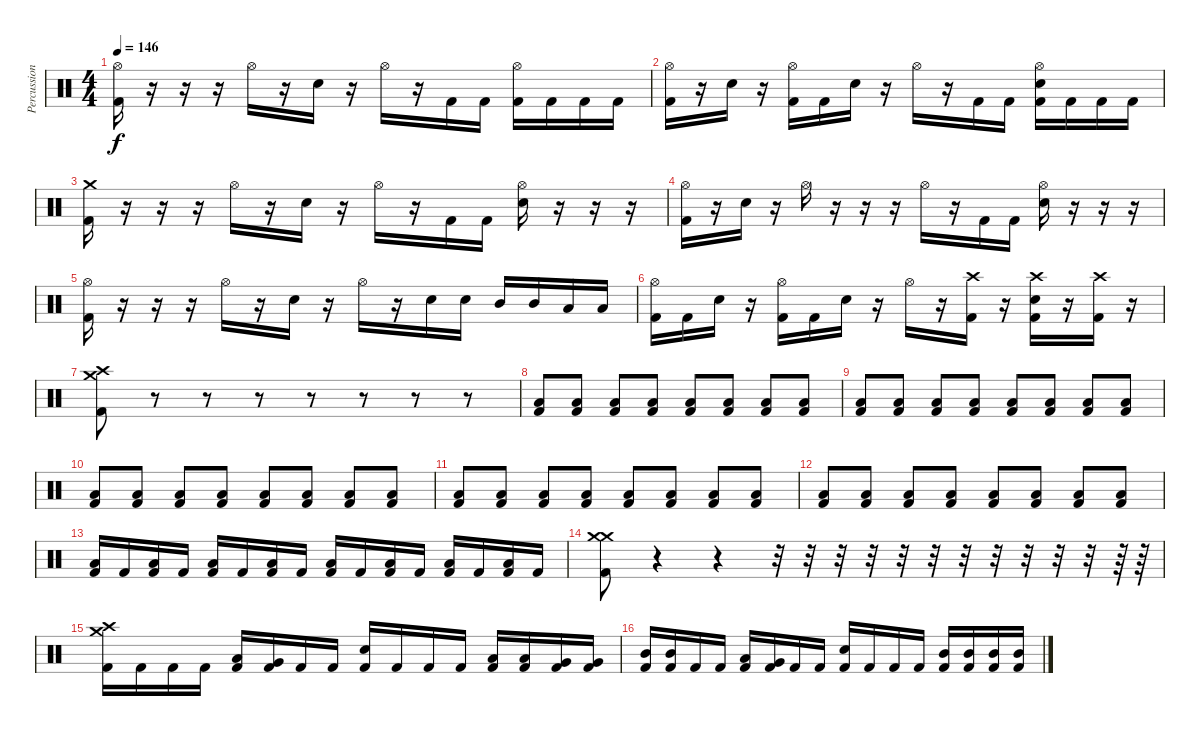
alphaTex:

\track ("Percussion" "Percussion") {instrument percussion}
\staff {score}
\articulation defaults
\ts (4 4)
\tempo 146
\clef neutral
\ks c
("Hi-Hat (open)" "Kick (hit) 2").16{dy f} r.16 r.16 r.16 "Hi-Hat (open)".16 r.16 "Snare (hit) 2".16 r.16 "Hi-Hat (open)".16 r.16 "Kick (hit) 2".16 "Kick (hit) 2".16 ("Hi-Hat (open)" "Kick (hit) 2").16 "Kick (hit) 2".16 "Kick (hit) 2".16 "Kick (hit) 2".16 |
("Hi-Hat (open)" "Kick (hit) 2").16 r.16 "Snare (hit) 2".16 r.16 ("Hi-Hat (open)" "Kick (hit) 2").16 "Kick (hit) 2".16 "Snare (hit) 2".16 r.16 "Hi-Hat (open)".16 r.16 "Kick (hit) 2".16 "Kick (hit) 2".16 ("Hi-Hat (open)" "Snare (hit) 2" "Kick (hit) 2").16 "Kick (hit) 2".16 "Kick (hit) 2".16 "Kick (hit) 2".16 |
("Crash medium (hit)" "Kick (hit) 2").16 r.16 r.16 r.16 "Hi-Hat (open)".16 r.16 "Snare (hit) 2".16 r.16 "Hi-Hat (open)".16 r.16 "Kick (hit) 2".16 "Kick (hit) 2".16 ("Hi-Hat (open)" "Snare (hit) 2").16 r.16 r.16 r.16 |
("Hi-Hat (open)" "Kick (hit) 2").16 r.16 "Snare (hit) 2".16 r.16 "Hi-Hat (open)".16 r.16 r.16 r.16 "Hi-Hat (open)".16 r.16 "Kick (hit) 2".16 "Kick (hit) 2".16 ("Hi-Hat (open)" "Snare (hit) 2").16 r.16 r.16 r.16 |
("Hi-Hat (open)" "Kick (hit) 2").16 r.16 r.16 r.16 "Hi-Hat (open)".16 r.16 "Snare (hit) 2".16 r.16 "Hi-Hat (open)".16 r.16 "Snare (hit) 2".16 "Snare (hit) 2".16 "Mid Tom (hit)".16 "Mid Tom (hit)".16 "Low Tom (hit)".16 "Low Tom (hit)".16 |
("Hi-Hat (open)" "Kick (hit) 2").16 "Kick (hit) 2".16 "Snare (hit) 2".16 r.16 ("Hi-Hat (open)" "Kick (hit) 2").16 "Kick (hit) 2".16 "Snare (hit) 2".16 r.16 "Hi-Hat (open)".16 r.16 ("Crash high (hit)" "Kick (hit) 2").16 r.16 ("Crash high (hit)" "Snare (hit) 2" "Kick (hit) 2").16 r.16 ("Crash high (hit)" "Kick (hit) 2").16 r.16 |
("Crash high (hit)" "Crash medium (hit)" "Kick (hit) 2").8 r.8 r.8 r.8 r.8 r.8 r.8 r.8{volume 5} |
("Low Floor Tom (hit)" "Kick (hit) 2").8{volume 13} ("Low Floor Tom (hit)" "Kick (hit) 2").8 ("Low Floor Tom (hit)" "Kick (hit) 2").8 ("Low Floor Tom (hit)" "Kick (hit) 2").8 ("Low Floor Tom (hit)" "Kick (hit) 2").8 ("Low Floor Tom (hit)" "Kick (hit) 2").8 ("Low Floor Tom (hit)" "Kick (hit) 2").8 ("Low Floor Tom (hit)" "Kick (hit) 2").8 |
("Low Floor Tom (hit)" "Kick (hit) 2").8 ("Low Floor Tom (hit)" "Kick (hit) 2").8 ("Low Floor Tom (hit)" "Kick (hit) 2").8 ("Low Floor Tom (hit)" "Kick (hit) 2").8 ("Low Floor Tom (hit)" "Kick (hit) 2").8 ("Low Floor Tom (hit)" "Kick (hit) 2").8 ("Low Floor Tom (hit)" "Kick (hit) 2").8 ("Low Floor Tom (hit)" "Kick (hit) 2").8 |
("Low Floor Tom (hit)" "Kick (hit) 2").8 ("Low Floor Tom (hit)" "Kick (hit) 2").8 ("Low Floor Tom (hit)" "Kick (hit) 2").8 ("Low Floor Tom (hit)" "Kick (hit) 2").8 ("Low Floor Tom (hit)" "Kick (hit) 2").8 ("Low Floor Tom (hit)" "Kick (hit) 2").8 ("Low Floor Tom (hit)" "Kick (hit) 2").8 ("Low Floor Tom (hit)" "Kick (hit) 2").8 |
("Low Floor Tom (hit)" "Kick (hit) 2").8 ("Low Floor Tom (hit)" "Kick (hit) 2").8 ("Low Floor Tom (hit)" "Kick (hit) 2").8 ("Low Floor Tom (hit)" "Kick (hit) 2").8 ("Low Floor Tom (hit)" "Kick (hit) 2").8 ("Low Floor Tom (hit)" "Kick (hit) 2").8 ("Low Floor Tom (hit)" "Kick (hit) 2").8 ("Low Floor Tom (hit)" "Kick (hit) 2").8 |
("Low Floor Tom (hit)" "Kick (hit) 2").8 ("Low Floor Tom (hit)" "Kick (hit) 2").8 ("Low Floor Tom (hit)" "Kick (hit) 2").8 ("Low Floor Tom (hit)" "Kick (hit) 2").8 ("Low Floor Tom (hit)" "Kick (hit) 2").8 ("Low Floor Tom (hit)" "Kick (hit) 2").8 ("Low Floor Tom (hit)" "Kick (hit) 2").8 ("Low Floor Tom (hit)" "Kick (hit) 2").8 |
("Low Floor Tom (hit)" "Kick (hit) 2").16 "Kick (hit) 2".16 ("Low Floor Tom (hit)" "Kick (hit) 2").16 "Kick (hit) 2".16 ("Low Floor Tom (hit)" "Kick (hit) 2").16 "Kick (hit) 2".16 ("Low Floor Tom (hit)" "Kick (hit) 2").16 "Kick (hit) 2".16 ("Low Floor Tom (hit)" "Kick (hit) 2").16 "Kick (hit) 2".16 ("Low Floor Tom (hit)" "Kick (hit) 2").16 "Kick (hit) 2".16 ("Low Floor Tom (hit)" "Kick (hit) 2").16 "Kick (hit) 2".16 ("Low Floor Tom (hit)" "Kick (hit) 2").16 "Kick (hit) 2".16 |
("Crash medium (hit)" "Crash medium (hit)" "Kick (hit) 2").8 r.4{volume 0} r.4 r.32 r.32 r.32 r.32 r.32 r.32 r.32 r.32 r.32 r.32 r.32 r.64 r.64{volume 13} |
("Crash high (hit)" "Crash medium (hit)" "Kick (hit) 2").16 "Kick (hit) 2".16 "Kick (hit) 2".16 "Kick (hit) 2".16 ("Low Tom (hit)" "Kick (hit) 2").16 ("Very Low Tom (hit)" "Kick (hit) 2").16 "Kick (hit) 2".16 "Kick (hit) 2".16 ("Snare (hit) 2" "Kick (hit) 2").16 "Kick (hit) 2".16 "Kick (hit) 2".16 "Kick (hit) 2".16 ("Low Tom (hit)" "Kick (hit) 2").16 ("Low Tom (hit)" "Kick (hit) 2").16 ("Very Low Tom (hit)" "Kick (hit) 2").16 ("Very Low Tom (hit)" "Kick (hit) 2").16 |
("Mid Tom (hit)" "Kick (hit) 2").16 ("Mid Tom (hit)" "Kick (hit) 2").16 "Kick (hit) 2".16 "Kick (hit) 2".16 ("Low Tom (hit)" "Kick (hit) 2").16 ("Very Low Tom (hit)" "Kick (hit) 2").16 "Kick (hit) 2".16 "Kick (hit) 2".16 ("Snare (hit) 2" "Kick (hit) 2").16 "Kick (hit) 2".16 "Kick (hit) 2".16 "Kick (hit) 2".16 ("Mid Tom (hit)" "Kick (hit) 2").16 ("Mid Tom (hit)" "Kick (hit) 2").16 ("Mid Tom (hit)" "Kick (hit) 2").16 ("Mid Tom (hit)" "Kick (hit) 2").16
